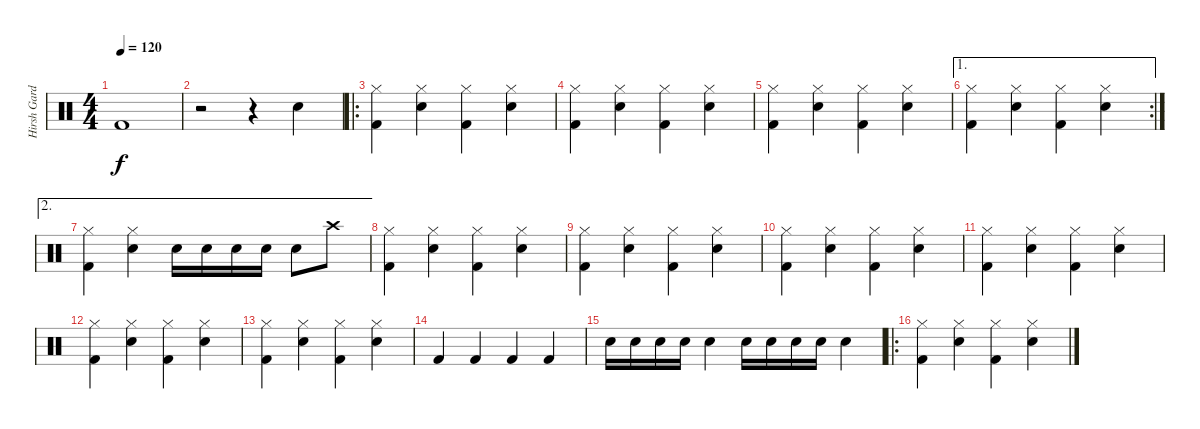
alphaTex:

\track ("Hirsh Gardner" "Hirsh Gard") {instrument percussion}
\staff {score}
\articulation defaults
\ts (4 4)
\tempo 120
\clef neutral
\ks c "Kick (hit) 2".1{dy f}
|
r.2 r.4 "Snare (hit) 2".4 |
\ro
("Kick (hit) 2" "Hi-Hat (closed)").4 ("Snare (hit) 2" "Hi-Hat (closed)").4 ("Kick (hit) 2" "Hi-Hat (closed)").4 ("Snare (hit) 2" "Hi-Hat (closed)").4 |
("Kick (hit) 2" "Hi-Hat (closed)").4 ("Snare (hit) 2" "Hi-Hat (closed)").4 ("Kick (hit) 2" "Hi-Hat (closed)").4 ("Snare (hit) 2" "Hi-Hat (closed)").4 |
("Kick (hit) 2" "Hi-Hat (closed)").4 ("Snare (hit) 2" "Hi-Hat (closed)").4 ("Kick (hit) 2" "Hi-Hat (closed)").4 ("Snare (hit) 2" "Hi-Hat (closed)").4 |
\ae 1
\rc 2
("Kick (hit) 2" "Hi-Hat (closed)").4 ("Snare (hit) 2" "Hi-Hat (closed)").4 ("Kick (hit) 2" "Hi-Hat (closed)").4 ("Snare (hit) 2" "Hi-Hat (closed)").4 |
\ae 2
("Kick (hit) 2" "Hi-Hat (closed)").4 ("Snare (hit) 2" "Hi-Hat (closed)").4 "Snare (hit) 2".16 "Snare (hit) 2".16 "Snare (hit) 2".16 "Snare (hit) 2".16 "Snare (hit) 2".8 "Crash high (hit)".8 |
("Kick (hit) 2" "Hi-Hat (closed)").4 ("Snare (hit) 2" "Hi-Hat (closed)").4 ("Kick (hit) 2" "Hi-Hat (closed)").4 ("Snare (hit) 2" "Hi-Hat (closed)").4 |
("Kick (hit) 2" "Hi-Hat (closed)").4 ("Snare (hit) 2" "Hi-Hat (closed)").4 ("Kick (hit) 2" "Hi-Hat (closed)").4 ("Snare (hit) 2" "Hi-Hat (closed)").4 |
("Kick (hit) 2" "Hi-Hat (closed)").4 ("Snare (hit) 2" "Hi-Hat (closed)").4 ("Kick (hit) 2" "Hi-Hat (closed)").4 ("Snare (hit) 2" "Hi-Hat (closed)").4 |
("Kick (hit) 2" "Hi-Hat (closed)").4 ("Snare (hit) 2" "Hi-Hat (closed)").4 ("Kick (hit) 2" "Hi-Hat (closed)").4 ("Snare (hit) 2" "Hi-Hat (closed)").4 |
("Kick (hit) 2" "Hi-Hat (closed)").4 ("Snare (hit) 2" "Hi-Hat (closed)").4 ("Kick (hit) 2" "Hi-Hat (closed)").4 ("Snare (hit) 2" "Hi-Hat (closed)").4 |
("Kick (hit) 2" "Hi-Hat (closed)").4 ("Snare (hit) 2" "Hi-Hat (closed)").4 ("Kick (hit) 2" "Hi-Hat (closed)").4 ("Snare (hit) 2" "Hi-Hat (closed)").4 |
"Kick (hit) 2".4 "Kick (hit) 2".4 "Kick (hit) 2".4 "Kick (hit) 2".4 |
"Snare (hit) 2".16 "Snare (hit) 2".16 "Snare (hit) 2".16 "Snare (hit) 2".16 "Snare (hit) 2".4 "Snare (hit) 2".16 "Snare (hit) 2".16 "Snare (hit) 2".16 "Snare (hit) 2".16 "Snare (hit) 2".4 |
\ro
("Kick (hit) 2" "Hi-Hat (closed)").4 ("Snare (hit) 2" "Hi-Hat (closed)").4 ("Kick (hit) 2" "Hi-Hat (closed)").4 ("Snare (hit) 2" "Hi-Hat (closed)").4
